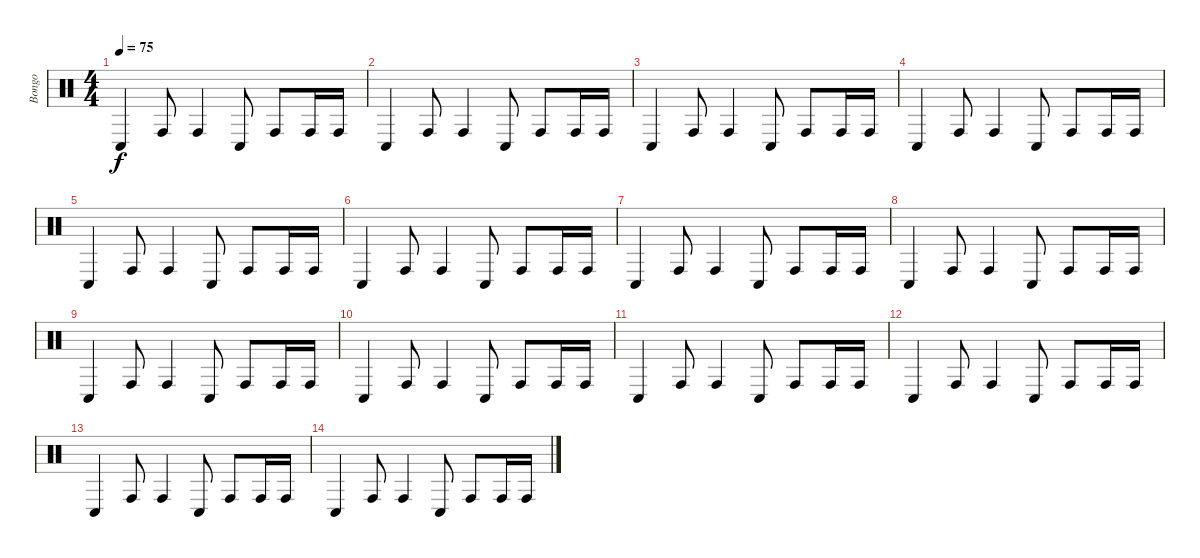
\track ("Bongo" "Bongo") {instrument percussion}
\staff {score}
\articulation defaults
\ts (4 4)
\tempo 75
\clef neutral
\ks c "Conga low (hit)".4{dy f} "Conga high (hit)".8 "Conga high (hit)".4 "Conga low (hit)".8 "Conga high (hit)".8 "Conga high (hit)".16 "Conga high (hit)".16
|
"Conga low (hit)".4 "Conga high (hit)".8 "Conga high (hit)".4 "Conga low (hit)".8 "Conga high (hit)".8 "Conga high (hit)".16 "Conga high (hit)".16 |
"Conga low (hit)".4 "Conga high (hit)".8 "Conga high (hit)".4 "Conga low (hit)".8 "Conga high (hit)".8 "Conga high (hit)".16 "Conga high (hit)".16 |
"Conga low (hit)".4 "Conga high (hit)".8 "Conga high (hit)".4 "Conga low (hit)".8 "Conga high (hit)".8 "Conga high (hit)".16 "Conga high (hit)".16 |
"Conga low (hit)".4 "Conga high (hit)".8 "Conga high (hit)".4 "Conga low (hit)".8 "Conga high (hit)".8 "Conga high (hit)".16 "Conga high (hit)".16 |
"Conga low (hit)".4 "Conga high (hit)".8 "Conga high (hit)".4 "Conga low (hit)".8 "Conga high (hit)".8 "Conga high (hit)".16 "Conga high (hit)".16 |
"Conga low (hit)".4 "Conga high (hit)".8 "Conga high (hit)".4 "Conga low (hit)".8 "Conga high (hit)".8 "Conga high (hit)".16 "Conga high (hit)".16 |
"Conga low (hit)".4 "Conga high (hit)".8 "Conga high (hit)".4 "Conga low (hit)".8 "Conga high (hit)".8 "Conga high (hit)".16 "Conga high (hit)".16 |
"Conga low (hit)".4 "Conga high (hit)".8 "Conga high (hit)".4 "Conga low (hit)".8 "Conga high (hit)".8 "Conga high (hit)".16 "Conga high (hit)".16 |
"Conga low (hit)".4 "Conga high (hit)".8 "Conga high (hit)".4 "Conga low (hit)".8 "Conga high (hit)".8 "Conga high (hit)".16 "Conga high (hit)".16 |
"Conga low (hit)".4 "Conga high (hit)".8 "Conga high (hit)".4 "Conga low (hit)".8 "Conga high (hit)".8 "Conga high (hit)".16 "Conga high (hit)".16 |
"Conga low (hit)".4 "Conga high (hit)".8 "Conga high (hit)".4 "Conga low (hit)".8 "Conga high (hit)".8 "Conga high (hit)".16 "Conga high (hit)".16 |
"Conga low (hit)".4 "Conga high (hit)".8 "Conga high (hit)".4 "Conga low (hit)".8 "Conga high (hit)".8 "Conga high (hit)".16 "Conga high (hit)".16 |
"Conga low (hit)".4 "Conga high (hit)".8 "Conga high (hit)".4 "Conga low (hit)".8 "Conga high (hit)".8 "Conga high (hit)".16 "Conga high (hit)".16
